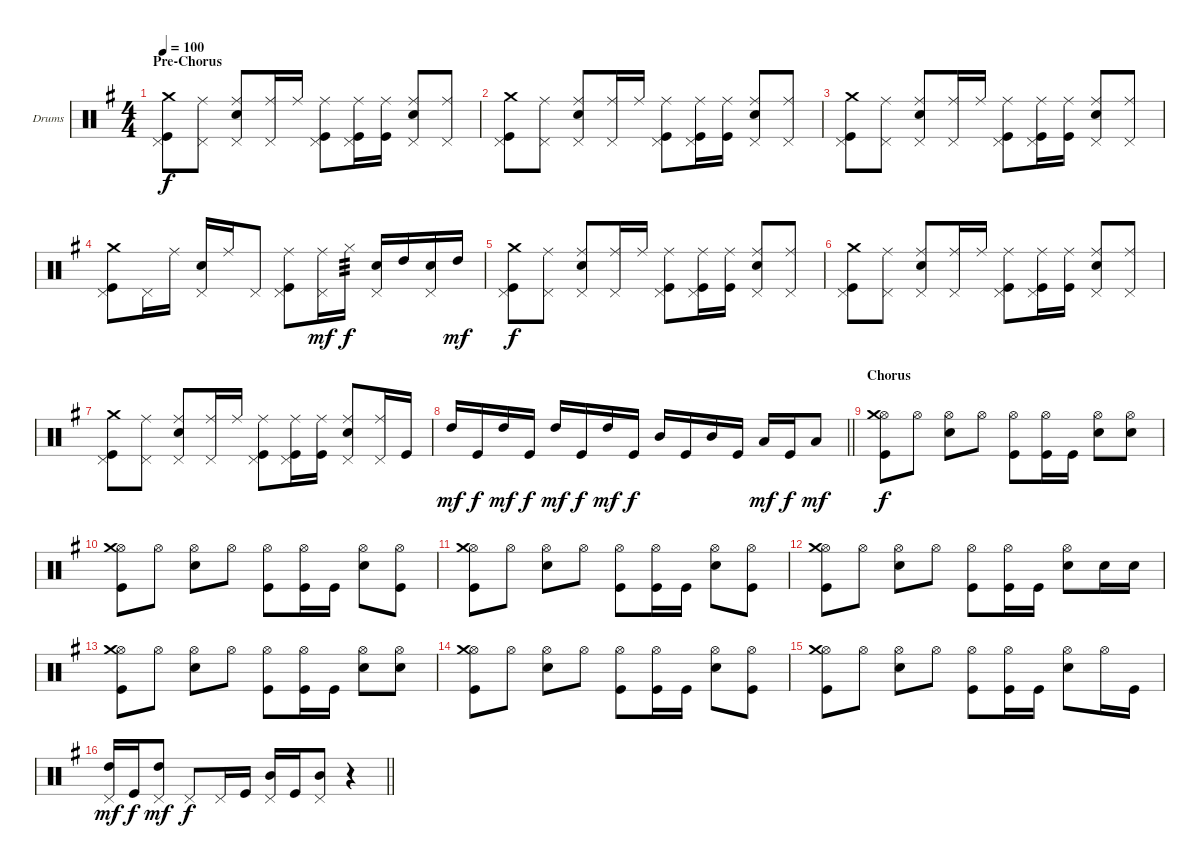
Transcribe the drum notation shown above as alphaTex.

\bracketExtendMode groupsimilarinstruments
\firstSystemTrackNameOrientation horizontal
\otherSystemsTrackNameOrientation horizontal
\track ("Барабаны" "Drums") {instrument percussion}
\staff {score}
\articulation defaults
\ts (4 4)
\section ("" "Pre-Chorus")
\tempo 100
\clef neutral
\ks eminor
("Crash medium (hit)" "Kick (hit)" "Pedal Hi-Hat (hit)").8{dy f} ("Pedal Hi-Hat (hit)" "Ride (middle)").8 ("Ride (middle)" "Snare (hit) 2" "Pedal Hi-Hat (hit)").8 ("Ride (middle)" "Pedal Hi-Hat (hit)").16 "Ride (middle)".16 ("Ride (middle)" "Kick (hit)" "Pedal Hi-Hat (hit)").8 ("Ride (middle)" "Pedal Hi-Hat (hit)" "Kick (hit)").16 ("Ride (middle)" "Kick (hit)").16 ("Ride (middle)" "Snare (hit) 2" "Pedal Hi-Hat (hit)").8 ("Ride (middle)" "Pedal Hi-Hat (hit)").8 |
("Crash medium (hit)" "Kick (hit)" "Pedal Hi-Hat (hit)").8 ("Pedal Hi-Hat (hit)" "Ride (middle)").8 ("Ride (middle)" "Snare (hit) 2" "Pedal Hi-Hat (hit)").8 ("Ride (middle)" "Pedal Hi-Hat (hit)").16 "Ride (middle)".16 ("Ride (middle)" "Kick (hit)" "Pedal Hi-Hat (hit)").8 ("Ride (middle)" "Pedal Hi-Hat (hit)" "Kick (hit)").16 ("Ride (middle)" "Kick (hit)").16 ("Ride (middle)" "Snare (hit) 2" "Pedal Hi-Hat (hit)").8 ("Ride (middle)" "Pedal Hi-Hat (hit)").8 |
("Crash medium (hit)" "Kick (hit)" "Pedal Hi-Hat (hit)").8 ("Pedal Hi-Hat (hit)" "Ride (middle)").8 ("Ride (middle)" "Snare (hit) 2" "Pedal Hi-Hat (hit)").8 ("Ride (middle)" "Pedal Hi-Hat (hit)").16 "Ride (middle)".16 ("Ride (middle)" "Kick (hit)" "Pedal Hi-Hat (hit)").8 ("Ride (middle)" "Pedal Hi-Hat (hit)" "Kick (hit)").16 ("Ride (middle)" "Kick (hit)").16 ("Ride (middle)" "Snare (hit) 2" "Pedal Hi-Hat (hit)").8 ("Ride (middle)" "Pedal Hi-Hat (hit)").8 |
("Crash medium (hit)" "Kick (hit)" "Pedal Hi-Hat (hit)").8 "Pedal Hi-Hat (hit)".16 "Ride (middle)".16 ("Snare (hit) 2" "Pedal Hi-Hat (hit)").16 "Ride (middle)".16 "Pedal Hi-Hat (hit)".8 ("Ride (middle)" "Kick (hit)" "Pedal Hi-Hat (hit)").8 ("Pedal Hi-Hat (hit)" "Ride (middle)").16{dy mf} "Hi-Hat (closed)".16{tp 3 dy f} ("Snare (hit) 2" "Pedal Hi-Hat (hit)").16 "High Tom (hit)".16 ("Snare (hit) 2" "Pedal Hi-Hat (hit)").16 "High Tom (hit)".16{dy mf} |
("Crash medium (hit)" "Kick (hit)" "Pedal Hi-Hat (hit)").8{dy f} ("Pedal Hi-Hat (hit)" "Ride (middle)").8 ("Ride (middle)" "Snare (hit) 2" "Pedal Hi-Hat (hit)").8 ("Ride (middle)" "Pedal Hi-Hat (hit)").16 "Ride (middle)".16 ("Ride (middle)" "Kick (hit)" "Pedal Hi-Hat (hit)").8 ("Ride (middle)" "Pedal Hi-Hat (hit)" "Kick (hit)").16 ("Ride (middle)" "Kick (hit)").16 ("Ride (middle)" "Snare (hit) 2" "Pedal Hi-Hat (hit)").8 ("Ride (middle)" "Pedal Hi-Hat (hit)").8 |
("Crash medium (hit)" "Kick (hit)" "Pedal Hi-Hat (hit)").8 ("Pedal Hi-Hat (hit)" "Ride (middle)").8 ("Ride (middle)" "Snare (hit) 2" "Pedal Hi-Hat (hit)").8 ("Ride (middle)" "Pedal Hi-Hat (hit)").16 "Ride (middle)".16 ("Ride (middle)" "Kick (hit)" "Pedal Hi-Hat (hit)").8 ("Ride (middle)" "Pedal Hi-Hat (hit)" "Kick (hit)").16 ("Ride (middle)" "Kick (hit)").16 ("Ride (middle)" "Snare (hit) 2" "Pedal Hi-Hat (hit)").8 ("Ride (middle)" "Pedal Hi-Hat (hit)").8 |
("Crash medium (hit)" "Kick (hit)" "Pedal Hi-Hat (hit)").8 ("Pedal Hi-Hat (hit)" "Ride (middle)").8 ("Ride (middle)" "Snare (hit) 2" "Pedal Hi-Hat (hit)").8 ("Ride (middle)" "Pedal Hi-Hat (hit)").16 "Ride (middle)".16 ("Ride (middle)" "Kick (hit)" "Pedal Hi-Hat (hit)").8 ("Ride (middle)" "Pedal Hi-Hat (hit)" "Kick (hit)").16 ("Ride (middle)" "Kick (hit)").16 ("Ride (middle)" "Snare (hit) 2" "Pedal Hi-Hat (hit)").8 ("Ride (middle)" "Pedal Hi-Hat (hit)").16 "Kick (hit)".16 |
\barLineRight lightlight "High Tom (hit)".16{dy mf} "Kick (hit)".16{dy f} "High Tom (hit)".16{dy mf} "Kick (hit)".16{dy f} "High Tom (hit)".16{dy mf} "Kick (hit)".16{dy f} "High Tom (hit)".16{dy mf} "Kick (hit)".16{dy f} "Mid Tom (hit)".16 "Kick (hit)".16 "Mid Tom (hit)".16 "Kick (hit)".16 "Low Tom (hit)".16{dy mf} "Kick (hit)".16{dy f} "Low Tom (hit)".8{dy mf}
|
\section ("" "Chorus")
("Hi-Hat (open)" "Crash medium (hit)" "Kick (hit)").8{dy f} "Hi-Hat (open)".8 ("Hi-Hat (open)" "Snare (hit) 2").8 "Hi-Hat (open)".8 ("Hi-Hat (open)" "Kick (hit)").8 ("Hi-Hat (open)" "Kick (hit)").16 "Kick (hit)".16 ("Hi-Hat (open)" "Snare (hit) 2").8 ("Hi-Hat (open)" "Snare (hit) 2").8 |
("Hi-Hat (open)" "Crash medium (hit)" "Kick (hit)").8 "Hi-Hat (open)".8 ("Hi-Hat (open)" "Snare (hit) 2").8 "Hi-Hat (open)".8 ("Hi-Hat (open)" "Kick (hit)").8 ("Hi-Hat (open)" "Kick (hit)").16 "Kick (hit)".16 ("Hi-Hat (open)" "Snare (hit) 2").8 ("Hi-Hat (open)" "Kick (hit)").8 |
("Hi-Hat (open)" "Crash medium (hit)" "Kick (hit)").8 "Hi-Hat (open)".8 ("Hi-Hat (open)" "Snare (hit) 2").8 "Hi-Hat (open)".8 ("Hi-Hat (open)" "Kick (hit)").8 ("Hi-Hat (open)" "Kick (hit)").16 "Kick (hit)".16 ("Hi-Hat (open)" "Snare (hit) 2").8 ("Hi-Hat (open)" "Kick (hit)").8 |
("Hi-Hat (open)" "Crash medium (hit)" "Kick (hit)").8 "Hi-Hat (open)".8 ("Hi-Hat (open)" "Snare (hit) 2").8 "Hi-Hat (open)".8 ("Hi-Hat (open)" "Kick (hit)").8 ("Hi-Hat (open)" "Kick (hit)").16 "Kick (hit)".16 ("Hi-Hat (open)" "Snare (hit) 2").8 "Snare (hit) 2".16 "Snare (hit) 2".16 |
("Hi-Hat (open)" "Crash medium (hit)" "Kick (hit)").8 "Hi-Hat (open)".8 ("Hi-Hat (open)" "Snare (hit) 2").8 "Hi-Hat (open)".8 ("Hi-Hat (open)" "Kick (hit)").8 ("Hi-Hat (open)" "Kick (hit)").16 "Kick (hit)".16 ("Hi-Hat (open)" "Snare (hit) 2").8 ("Hi-Hat (open)" "Snare (hit) 2").8 |
("Hi-Hat (open)" "Crash medium (hit)" "Kick (hit)").8 "Hi-Hat (open)".8 ("Hi-Hat (open)" "Snare (hit) 2").8 "Hi-Hat (open)".8 ("Hi-Hat (open)" "Kick (hit)").8 ("Hi-Hat (open)" "Kick (hit)").16 "Kick (hit)".16 ("Hi-Hat (open)" "Snare (hit) 2").8 ("Hi-Hat (open)" "Kick (hit)").8 |
("Hi-Hat (open)" "Crash medium (hit)" "Kick (hit)").8 "Hi-Hat (open)".8 ("Hi-Hat (open)" "Snare (hit) 2").8 "Hi-Hat (open)".8 ("Hi-Hat (open)" "Kick (hit)").8 ("Hi-Hat (open)" "Kick (hit)").16 "Kick (hit)".16 ("Hi-Hat (open)" "Snare (hit) 2").8 "Hi-Hat (open)".16 "Kick (hit)".16 |
\barLineRight lightlight
("High Tom (hit)" "Pedal Hi-Hat (hit)").16{dy mf} "Kick (hit)".16{dy f} ("Pedal Hi-Hat (hit)" "High Tom (hit)").8{dy mf} "Pedal Hi-Hat (hit)".8{dy f} "Pedal Hi-Hat (hit)".16 "Kick (hit)".16 ("Mid Tom (hit)" "Pedal Hi-Hat (hit)").16 "Kick (hit)".16 ("Mid Tom (hit)" "Pedal Hi-Hat (hit)").8 r.4
